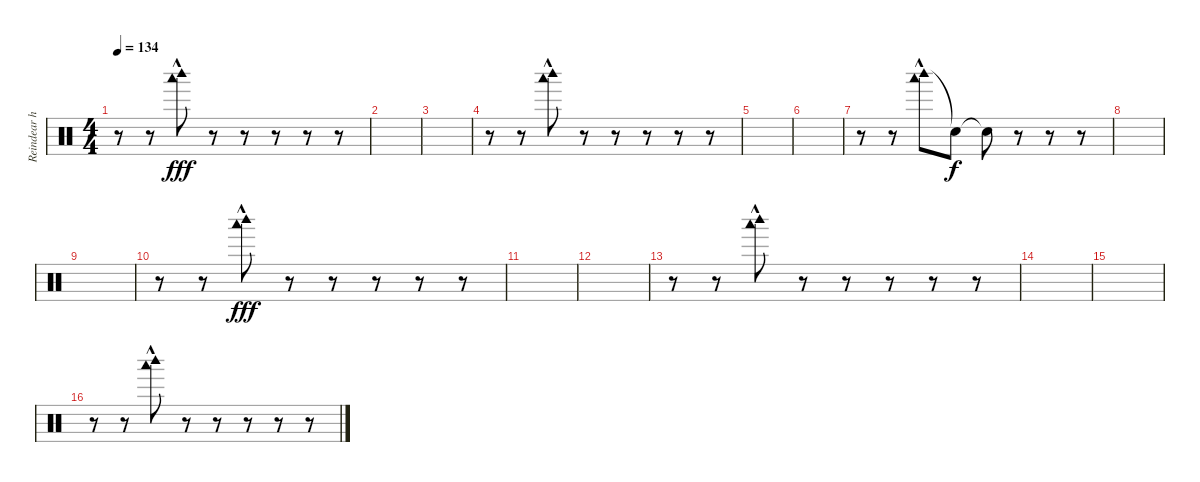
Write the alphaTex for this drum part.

\track ("Reindear horn" "Reindear h") {instrument percussion}
\staff {score}
\articulation defaults
\ts (4 4)
\tempo 134
\clef neutral
\ks c
r.8{dy fff} r.8 ("Woodblock high (hit)" "Woodblock low (hit)"{hac}).8 r.8 r.8 r.8 r.8 r.8 |
|
|
r.8 r.8 ("Woodblock high (hit)" "Woodblock low (hit)"{hac}).8 r.8 r.8 r.8 r.8 r.8 |
|
|
r.8 r.8 ("Woodblock high (hit)" "Woodblock low (hit)"{hac}).8 "Snare (hit)"{t}.8{dy f} "Snare (hit)"{t}.8 r.8 r.8 r.8 |
|
|
r.8 r.8 ("Woodblock high (hit)" "Woodblock low (hit)"{hac}).8{dy fff} r.8 r.8 r.8 r.8 r.8 |
|
|
r.8 r.8 ("Woodblock high (hit)" "Woodblock low (hit)"{hac}).8 r.8 r.8 r.8 r.8 r.8 |
|
|
r.8 r.8 ("Woodblock high (hit)" "Woodblock low (hit)"{hac}).8 r.8 r.8 r.8 r.8 r.8
